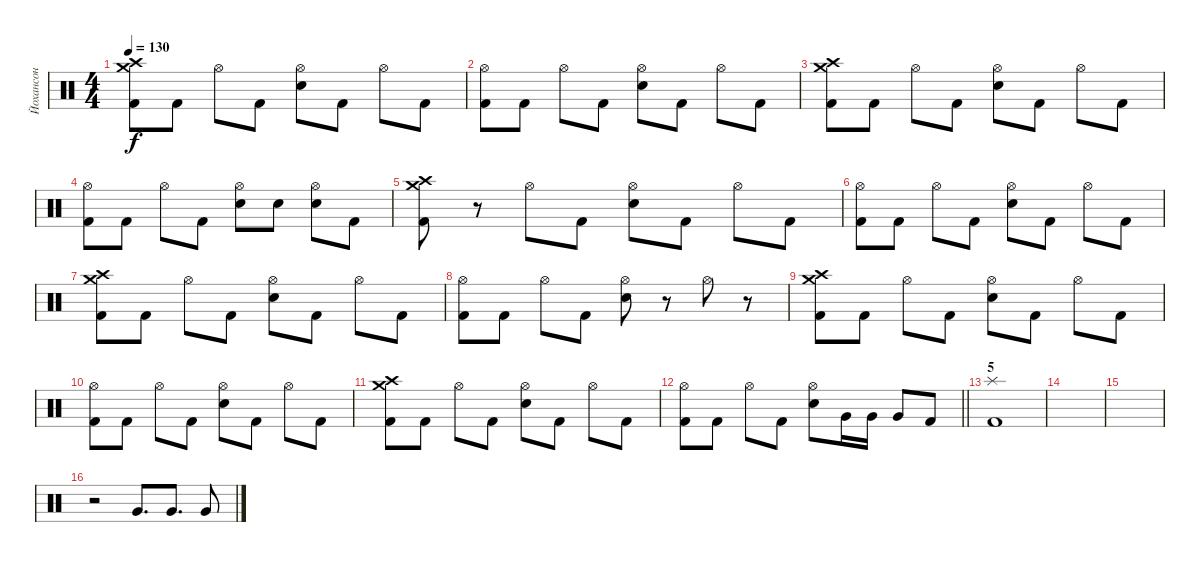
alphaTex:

\track ("Йохансон" "Йохансон") {instrument percussion}
\staff {score}
\articulation defaults
\ts (4 4)
\tempo 130
\clef neutral
\ks c
("Crash medium (hit)" "Crash high (hit)" "Kick (hit) 2").8{dy f} "Kick (hit) 2".8 "Hi-Hat (open)".8 "Kick (hit) 2".8 ("Hi-Hat (open)" "Snare (hit) 2").8 "Kick (hit) 2".8 "Hi-Hat (open)".8 "Kick (hit) 2".8 |
("Hi-Hat (open)" "Kick (hit) 2").8 "Kick (hit) 2".8 "Hi-Hat (open)".8 "Kick (hit) 2".8 ("Hi-Hat (open)" "Snare (hit) 2").8 "Kick (hit) 2".8 "Hi-Hat (open)".8 "Kick (hit) 2".8 |
("Crash medium (hit)" "Crash high (hit)" "Kick (hit) 2").8 "Kick (hit) 2".8 "Hi-Hat (open)".8 "Kick (hit) 2".8 ("Hi-Hat (open)" "Snare (hit) 2").8 "Kick (hit) 2".8 "Hi-Hat (open)".8 "Kick (hit) 2".8 |
("Hi-Hat (open)" "Kick (hit) 2").8 "Kick (hit) 2".8 "Hi-Hat (open)".8 "Kick (hit) 2".8 ("Hi-Hat (open)" "Snare (hit) 2").8 "Snare (hit) 2".8 ("Hi-Hat (open)" "Snare (hit) 2").8 "Kick (hit) 2".8 |
("Crash medium (hit)" "Crash high (hit)" "Kick (hit) 2").8 r.8 "Hi-Hat (open)".8 "Kick (hit) 2".8 ("Hi-Hat (open)" "Snare (hit) 2").8 "Kick (hit) 2".8 "Hi-Hat (open)".8 "Kick (hit) 2".8 |
("Hi-Hat (open)" "Kick (hit) 2").8 "Kick (hit) 2".8 "Hi-Hat (open)".8 "Kick (hit) 2".8 ("Hi-Hat (open)" "Snare (hit) 2").8 "Kick (hit) 2".8 "Hi-Hat (open)".8 "Kick (hit) 2".8 |
("Crash medium (hit)" "Crash high (hit)" "Kick (hit) 2").8 "Kick (hit) 2".8 "Hi-Hat (open)".8 "Kick (hit) 2".8 ("Hi-Hat (open)" "Snare (hit) 2").8 "Kick (hit) 2".8 "Hi-Hat (open)".8 "Kick (hit) 2".8 |
("Hi-Hat (open)" "Kick (hit) 2").8 "Kick (hit) 2".8 "Hi-Hat (open)".8 "Kick (hit) 2".8 ("Hi-Hat (open)" "Snare (hit) 2").8 r.8 "Hi-Hat (open)".8 r.8 |
("Crash medium (hit)" "Crash high (hit)" "Kick (hit) 2").8 "Kick (hit) 2".8 "Hi-Hat (open)".8 "Kick (hit) 2".8 ("Hi-Hat (open)" "Snare (hit) 2").8 "Kick (hit) 2".8 "Hi-Hat (open)".8 "Kick (hit) 2".8 |
("Hi-Hat (open)" "Kick (hit) 2").8 "Kick (hit) 2".8 "Hi-Hat (open)".8 "Kick (hit) 2".8 ("Hi-Hat (open)" "Snare (hit) 2").8 "Kick (hit) 2".8 "Hi-Hat (open)".8 "Kick (hit) 2".8 |
("Crash medium (hit)" "Crash high (hit)" "Kick (hit) 2").8 "Kick (hit) 2".8 "Hi-Hat (open)".8 "Kick (hit) 2".8 ("Hi-Hat (open)" "Snare (hit) 2").8 "Kick (hit) 2".8 "Hi-Hat (open)".8 "Kick (hit) 2".8 |
\barLineRight lightlight
("Hi-Hat (open)" "Kick (hit) 2").8 "Kick (hit) 2".8 "Hi-Hat (open)".8 "Kick (hit) 2".8 ("Hi-Hat (open)" "Snare (hit) 2").8 "Very Low Tom (hit)".16 "Very Low Tom (hit)".16 "Very Low Tom (hit)".8 "Kick (hit) 2".8 |
\section ("" "5")
("Splash (hit)" "Kick (hit) 2").1 |
|
|
r.2 "Very Low Tom (hit)".8{d} "Very Low Tom (hit)".8{d} "Very Low Tom (hit)".8
